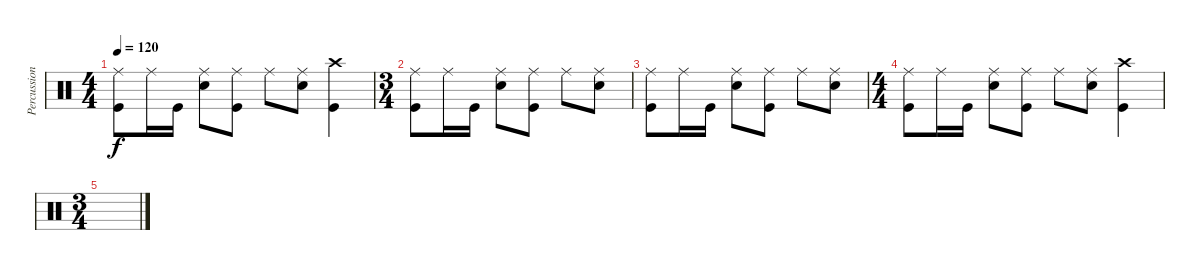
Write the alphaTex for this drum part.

\track ("Percussion" "Percussion") {instrument percussion}
\staff {score}
\articulation defaults
\ts (4 4)
\tempo 120
\clef neutral
\ks c
("Ride (middle)" "Kick (hit)").8{dy f} "Ride (middle)".16 "Kick (hit)".16 ("Ride (middle)" "Snare (hit) 2").8 ("Ride (middle)" "Kick (hit)").8 "Ride (middle)".8 ("Ride (middle)" "Snare (hit) 2").8 ("Crash high (hit)" "Kick (hit)").4 |
\ts (3 4)
("Ride (middle)" "Kick (hit)").8 "Ride (middle)".16 "Kick (hit)".16 ("Ride (middle)" "Snare (hit) 2").8 ("Ride (middle)" "Kick (hit)").8 "Ride (middle)".8 ("Ride (middle)" "Snare (hit) 2").8 |
("Ride (middle)" "Kick (hit)").8 "Ride (middle)".16 "Kick (hit)".16 ("Ride (middle)" "Snare (hit) 2").8 ("Ride (middle)" "Kick (hit)").8 "Ride (middle)".8 ("Ride (middle)" "Snare (hit) 2").8 |
\ts (4 4)
("Ride (middle)" "Kick (hit)").8 "Ride (middle)".16 "Kick (hit)".16 ("Ride (middle)" "Snare (hit) 2").8 ("Ride (middle)" "Kick (hit)").8 "Ride (middle)".8 ("Ride (middle)" "Snare (hit) 2").8 ("Crash high (hit)" "Kick (hit)").4 |
\ts (3 4)
